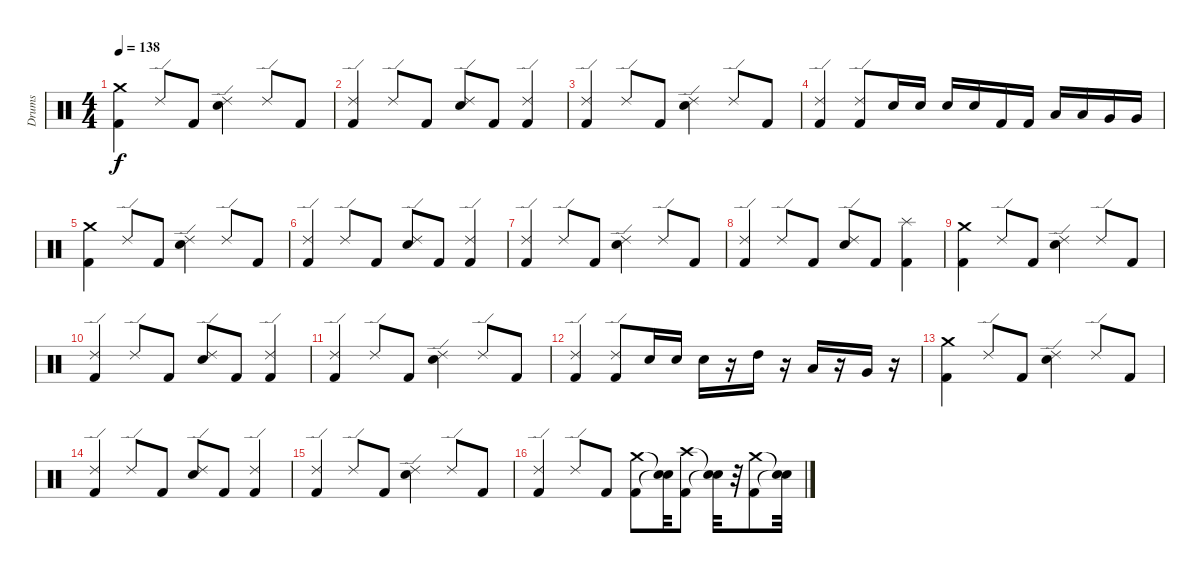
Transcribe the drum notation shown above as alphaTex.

\track ("Drums" "Drums") {instrument percussion}
\staff {score}
\articulation defaults
\ts (4 4)
\tempo 138
\clef neutral
\ks c
("Kick (hit) 2" "Crash medium (hit)").4{dy f} "Ride (edge) 2".8 "Kick (hit) 2".8 ("Ride (edge) 2" "Electric Snare (hit)").4 "Ride (edge) 2".8 "Kick (hit) 2".8 |
("Ride (edge) 2" "Kick (hit) 2").4 "Ride (edge) 2".8 "Kick (hit) 2".8 ("Ride (edge) 2" "Electric Snare (hit)").8 "Kick (hit) 2".8 ("Ride (edge) 2" "Kick (hit) 2").4 |
("Ride (edge) 2" "Kick (hit) 2").4 "Ride (edge) 2".8 "Kick (hit) 2".8 ("Ride (edge) 2" "Electric Snare (hit)").4 "Ride (edge) 2".8 "Kick (hit) 2".8 |
("Ride (edge) 2" "Kick (hit) 2").4 ("Ride (edge) 2" "Kick (hit) 2").8 "Electric Snare (hit)".16 "Electric Snare (hit)".16 "Electric Snare (hit)".16 "Electric Snare (hit)".16 "Kick (hit) 2".16 "Kick (hit) 2".16 "Low Tom (hit)".16 "Low Tom (hit)".16 "Very Low Tom (hit)".16 "Very Low Tom (hit)".16 |
("Kick (hit) 2" "Crash medium (hit)").4{volume 11} "Ride (edge) 2".8{volume 11} "Kick (hit) 2".8{volume 11} ("Ride (edge) 2" "Electric Snare (hit)").4{volume 11} "Ride (edge) 2".8{volume 11} "Kick (hit) 2".8{volume 11} |
("Ride (edge) 2" "Kick (hit) 2").4{volume 11} "Ride (edge) 2".8{volume 11} "Kick (hit) 2".8{volume 11} ("Ride (edge) 2" "Electric Snare (hit)").8{volume 11} "Kick (hit) 2".8{volume 11} ("Ride (edge) 2" "Kick (hit) 2").4{volume 11} |
("Ride (edge) 2" "Kick (hit) 2").4{volume 11} "Ride (edge) 2".8{volume 11} "Kick (hit) 2".8{volume 11} ("Ride (edge) 2" "Electric Snare (hit)").4{volume 11} "Ride (edge) 2".8{volume 11} "Kick (hit) 2".8{volume 11} |
("Ride (edge) 2" "Kick (hit) 2").4{volume 11} "Ride (edge) 2".8{volume 11} "Kick (hit) 2".8{volume 11} ("Ride (edge) 2" "Electric Snare (hit)").8{volume 11} "Kick (hit) 2".8{volume 11} ("Splash (hit)" "Kick (hit) 2").4{volume 11} |
("Kick (hit) 2" "Crash medium (hit)").4{volume 11} "Ride (edge) 2".8{volume 11} "Kick (hit) 2".8{volume 11} ("Ride (edge) 2" "Electric Snare (hit)").4{volume 11} "Ride (edge) 2".8{volume 11} "Kick (hit) 2".8{volume 11} |
("Ride (edge) 2" "Kick (hit) 2").4{volume 11} "Ride (edge) 2".8{volume 11} "Kick (hit) 2".8{volume 11} ("Ride (edge) 2" "Electric Snare (hit)").8{volume 10} "Kick (hit) 2".8{volume 10} ("Ride (edge) 2" "Kick (hit) 2").4{volume 10} |
("Ride (edge) 2" "Kick (hit) 2").4{volume 10} "Ride (edge) 2".8{volume 10} "Kick (hit) 2".8{volume 10} ("Ride (edge) 2" "Electric Snare (hit)").4{volume 10} "Ride (edge) 2".8{volume 9} "Kick (hit) 2".8{volume 9} |
("Ride (edge) 2" "Kick (hit) 2").4{volume 9} ("Ride (edge) 2" "Kick (hit) 2").8{volume 9} "Electric Snare (hit)".16{volume 9} "Electric Snare (hit)".16{volume 8} "Electric Snare (hit)".16 r.16 "High Tom (hit)".16{volume 8} r.16 "Low Tom (hit)".16{volume 8} r.16 "Very Low Tom (hit)".16{volume 8} r.16 |
("Kick (hit) 2" "Crash medium (hit)").4{volume 8} "Ride (edge) 2".8{volume 8} "Kick (hit) 2".8{volume 8} ("Ride (edge) 2" "Electric Snare (hit)").4{volume 8} "Ride (edge) 2".8{volume 7} "Kick (hit) 2".8{volume 7} |
("Ride (edge) 2" "Kick (hit) 2").4{volume 7} "Ride (edge) 2".8{volume 7} "Kick (hit) 2".8{volume 7} ("Ride (edge) 2" "Electric Snare (hit)").8{volume 6} "Kick (hit) 2".8{volume 6} ("Ride (edge) 2" "Kick (hit) 2").4{volume 6} |
("Ride (edge) 2" "Kick (hit) 2").4{volume 6} "Ride (edge) 2".8{volume 6} "Kick (hit) 2".8{volume 6} ("Ride (edge) 2" "Electric Snare (hit)").4{volume 6} "Ride (edge) 2".8{volume 5} "Kick (hit) 2".8{volume 5} |
("Ride (edge) 2" "Kick (hit) 2").4{volume 5} "Ride (edge) 2".8{volume 5} "Kick (hit) 2".8{volume 5} ("Crash medium (hit)" "Kick (hit) 2").8{volume 4} ("Snare (hit)"{t} "Snare (hit)"{t}).32 ("Crash high (hit)" "Kick (hit) 2").8{volume 4} ("Snare (hit)"{t} "Snare (hit)"{t}).32 r.32 ("Crash medium (hit)" "Kick (hit) 2").8{volume 4} ("Snare (hit)"{t} "Snare (hit)"{t}).32
